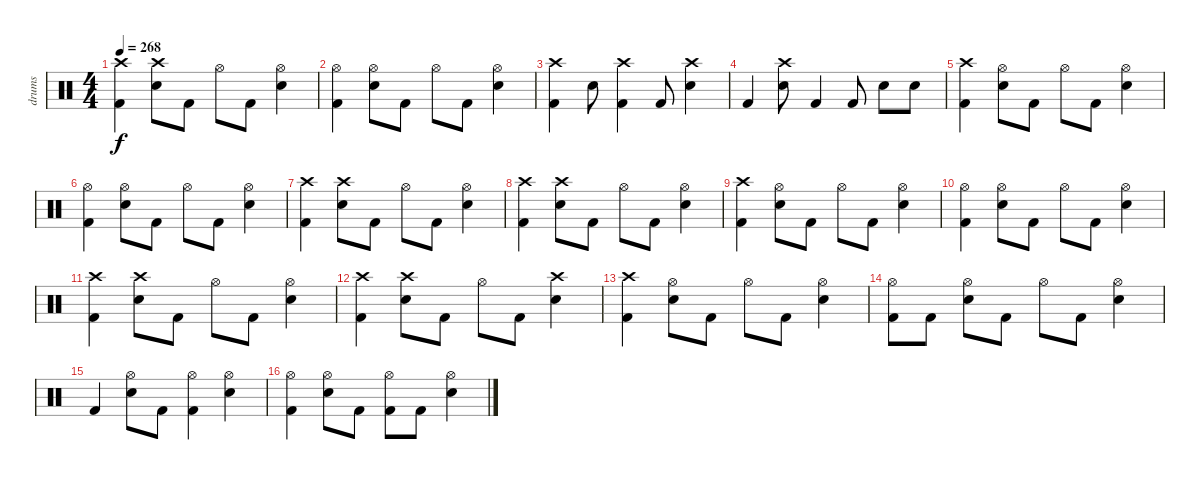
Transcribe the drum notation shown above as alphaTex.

\track ("drums" "drums") {instrument percussion}
\staff {score}
\articulation defaults
\ts (4 4)
\tempo 268
\clef neutral
\ks c
("Crash high (hit)" "Kick (hit) 2").4{dy f} ("Crash high (hit)" "Electric Snare (hit)").8 "Kick (hit) 2".8 "Hi-Hat (open)".8 "Kick (hit) 2".8 ("Hi-Hat (open)" "Electric Snare (hit)").4 |
("Hi-Hat (open)" "Kick (hit) 2").4 ("Hi-Hat (open)" "Electric Snare (hit)").8 "Kick (hit) 2".8 "Hi-Hat (open)".8 "Kick (hit) 2".8 ("Hi-Hat (open)" "Electric Snare (hit)").4 |
("Crash high (hit)" "Kick (hit) 2").4 "Electric Snare (hit)".8 ("Crash high (hit)" "Kick (hit) 2").4 "Kick (hit) 2".8 ("Crash high (hit)" "Electric Snare (hit)").4 |
"Kick (hit) 2".4 ("Crash high (hit)" "Electric Snare (hit)").8 "Kick (hit) 2".4 "Kick (hit) 2".8 "Electric Snare (hit)".8 "Electric Snare (hit)".8 |
("Crash high (hit)" "Kick (hit) 2").4 ("Hi-Hat (open)" "Electric Snare (hit)").8 "Kick (hit) 2".8 "Hi-Hat (open)".8 "Kick (hit) 2".8 ("Hi-Hat (open)" "Electric Snare (hit)").4 |
("Hi-Hat (open)" "Kick (hit) 2").4 ("Hi-Hat (open)" "Electric Snare (hit)").8 "Kick (hit) 2".8 "Hi-Hat (open)".8 "Kick (hit) 2".8 ("Hi-Hat (open)" "Electric Snare (hit)").4 |
("Crash high (hit)" "Kick (hit) 2").4 ("Crash high (hit)" "Electric Snare (hit)").8 "Kick (hit) 2".8 "Hi-Hat (open)".8 "Kick (hit) 2".8 ("Hi-Hat (open)" "Electric Snare (hit)").4 |
("Crash high (hit)" "Kick (hit) 2").4 ("Crash high (hit)" "Electric Snare (hit)").8 "Kick (hit) 2".8 "Hi-Hat (open)".8 "Kick (hit) 2".8 ("Hi-Hat (open)" "Electric Snare (hit)").4 |
("Crash high (hit)" "Kick (hit) 2").4 ("Hi-Hat (open)" "Electric Snare (hit)").8 "Kick (hit) 2".8 "Hi-Hat (open)".8 "Kick (hit) 2".8 ("Hi-Hat (open)" "Electric Snare (hit)").4 |
("Hi-Hat (open)" "Kick (hit) 2").4 ("Hi-Hat (open)" "Electric Snare (hit)").8 "Kick (hit) 2".8 "Hi-Hat (open)".8 "Kick (hit) 2".8 ("Hi-Hat (open)" "Electric Snare (hit)").4 |
("Crash high (hit)" "Kick (hit) 2").4 ("Crash high (hit)" "Electric Snare (hit)").8 "Kick (hit) 2".8 "Hi-Hat (open)".8 "Kick (hit) 2".8 ("Hi-Hat (open)" "Electric Snare (hit)").4 |
("Crash high (hit)" "Kick (hit) 2").4 ("Crash high (hit)" "Electric Snare (hit)").8 "Kick (hit) 2".8 "Hi-Hat (open)".8 "Kick (hit) 2".8 ("Crash high (hit)" "Electric Snare (hit)").4 |
("Crash high (hit)" "Kick (hit) 2").4 ("Hi-Hat (open)" "Electric Snare (hit)").8 "Kick (hit) 2".8 "Hi-Hat (open)".8 "Kick (hit) 2".8 ("Hi-Hat (open)" "Electric Snare (hit)").4 |
("Hi-Hat (open)" "Kick (hit) 2").8 "Kick (hit) 2".8 ("Hi-Hat (open)" "Electric Snare (hit)").8 "Kick (hit) 2".8 "Hi-Hat (open)".8 "Kick (hit) 2".8 ("Hi-Hat (open)" "Electric Snare (hit)").4 |
"Kick (hit) 2".4 ("Hi-Hat (open)" "Electric Snare (hit)").8 "Kick (hit) 2".8 ("Hi-Hat (open)" "Kick (hit) 2").4 ("Hi-Hat (open)" "Electric Snare (hit)").4 |
("Hi-Hat (open)" "Kick (hit) 2").4 ("Hi-Hat (open)" "Electric Snare (hit)").8 "Kick (hit) 2".8 ("Hi-Hat (open)" "Kick (hit) 2").8 "Kick (hit) 2".8 ("Hi-Hat (open)" "Electric Snare (hit)").4
